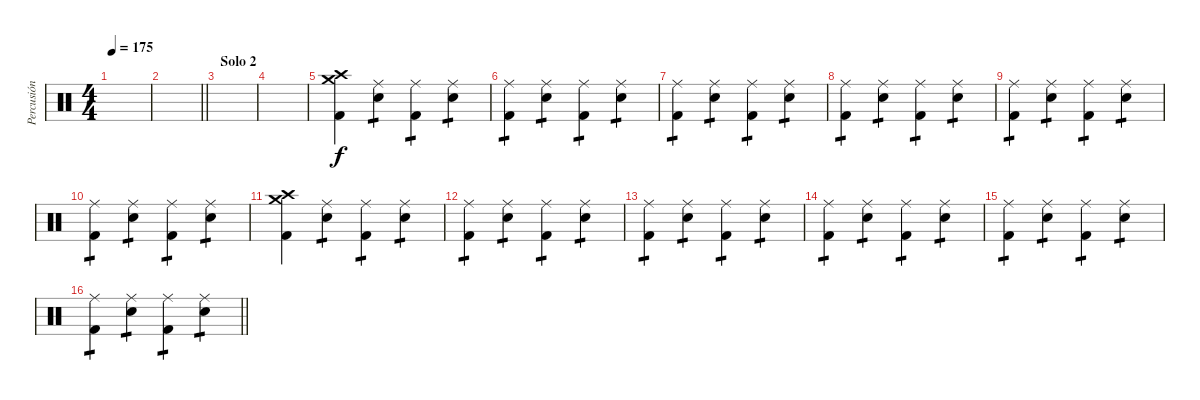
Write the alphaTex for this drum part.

\track ("Percusión" "Percusión") {instrument percussion}
\staff {score}
\articulation defaults
\ts (4 4)
\tempo 175
\clef neutral
\ks c
|
\barLineRight lightlight
|
\section ("" "Solo 2")
|
|
("Crash high (hit)" "Crash medium (hit)" "Kick (hit) 2").4 ("Ride (middle)" "Electric Snare (hit)").4{tp 1} ("Ride (middle)" "Kick (hit) 2").4{tp 1} ("Ride (middle)" "Electric Snare (hit)").4{tp 1} |
("Ride (middle)" "Kick (hit) 2").4{tp 1} ("Ride (middle)" "Electric Snare (hit)").4{tp 1} ("Ride (middle)" "Kick (hit) 2").4{tp 1} ("Ride (middle)" "Electric Snare (hit)").4{tp 1} |
("Ride (middle)" "Kick (hit) 2").4{tp 1} ("Ride (middle)" "Electric Snare (hit)").4{tp 1} ("Ride (middle)" "Kick (hit) 2").4{tp 1} ("Ride (middle)" "Electric Snare (hit)").4{tp 1} |
("Ride (middle)" "Kick (hit) 2").4{tp 1} ("Ride (middle)" "Electric Snare (hit)").4{tp 1} ("Ride (middle)" "Kick (hit) 2").4{tp 1} ("Ride (middle)" "Electric Snare (hit)").4{tp 1} |
("Ride (middle)" "Kick (hit) 2").4{tp 1} ("Ride (middle)" "Electric Snare (hit)").4{tp 1} ("Ride (middle)" "Kick (hit) 2").4{tp 1} ("Ride (middle)" "Electric Snare (hit)").4{tp 1} |
("Ride (middle)" "Kick (hit) 2").4{tp 1} ("Ride (middle)" "Electric Snare (hit)").4{tp 1} ("Ride (middle)" "Kick (hit) 2").4{tp 1} ("Ride (middle)" "Electric Snare (hit)").4{tp 1} |
("Crash high (hit)" "Crash medium (hit)" "Kick (hit) 2").4 ("Ride (middle)" "Electric Snare (hit)").4{tp 1} ("Ride (middle)" "Kick (hit) 2").4{tp 1} ("Ride (middle)" "Electric Snare (hit)").4{tp 1} |
("Ride (middle)" "Kick (hit) 2").4{tp 1} ("Ride (middle)" "Electric Snare (hit)").4{tp 1} ("Ride (middle)" "Kick (hit) 2").4{tp 1} ("Ride (middle)" "Electric Snare (hit)").4{tp 1} |
("Ride (middle)" "Kick (hit) 2").4{tp 1} ("Ride (middle)" "Electric Snare (hit)").4{tp 1} ("Ride (middle)" "Kick (hit) 2").4{tp 1} ("Ride (middle)" "Electric Snare (hit)").4{tp 1} |
("Ride (middle)" "Kick (hit) 2").4{tp 1} ("Ride (middle)" "Electric Snare (hit)").4{tp 1} ("Ride (middle)" "Kick (hit) 2").4{tp 1} ("Ride (middle)" "Electric Snare (hit)").4{tp 1} |
("Ride (middle)" "Kick (hit) 2").4{tp 1} ("Ride (middle)" "Electric Snare (hit)").4{tp 1} ("Ride (middle)" "Kick (hit) 2").4{tp 1} ("Ride (middle)" "Electric Snare (hit)").4{tp 1} |
\barLineRight lightlight
("Ride (middle)" "Kick (hit) 2").4{tp 1} ("Ride (middle)" "Electric Snare (hit)").4{tp 1} ("Ride (middle)" "Kick (hit) 2").4{tp 1} ("Ride (middle)" "Electric Snare (hit)").4{tp 1}
